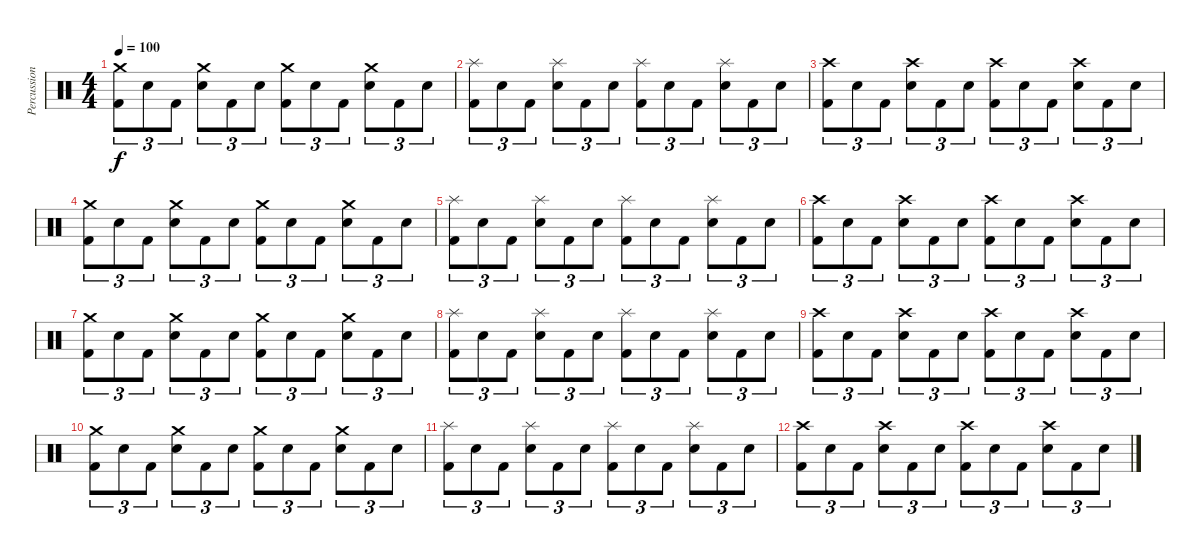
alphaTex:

\track ("Percussion" "Percussion") {instrument percussion}
\staff {score}
\articulation defaults
\ts (4 4)
\tempo 100
\clef neutral
\ks c
("Crash medium (hit)" "Kick (hit) 2").8{tu (3 2) dy f} "Snare (hit) 2".8{tu (3 2)} "Kick (hit) 2".8{tu (3 2)} ("Crash medium (hit)" "Snare (hit) 2").8{tu (3 2)} "Kick (hit) 2".8{tu (3 2)} "Snare (hit) 2".8{tu (3 2)} ("Crash medium (hit)" "Kick (hit) 2").8{tu (3 2)} "Snare (hit) 2".8{tu (3 2)} "Kick (hit) 2".8{tu (3 2)} ("Crash medium (hit)" "Snare (hit) 2").8{tu (3 2)} "Kick (hit) 2".8{tu (3 2)} "Snare (hit) 2".8{tu (3 2)} |
("Splash (hit)" "Kick (hit) 2").8{tu (3 2)} "Snare (hit) 2".8{tu (3 2)} "Kick (hit) 2".8{tu (3 2)} ("Splash (hit)" "Snare (hit) 2").8{tu (3 2)} "Kick (hit) 2".8{tu (3 2)} "Snare (hit) 2".8{tu (3 2)} ("Splash (hit)" "Kick (hit) 2").8{tu (3 2)} "Snare (hit) 2".8{tu (3 2)} "Kick (hit) 2".8{tu (3 2)} ("Splash (hit)" "Snare (hit) 2").8{tu (3 2)} "Kick (hit) 2".8{tu (3 2)} "Snare (hit) 2".8{tu (3 2)} |
("Crash high (hit)" "Kick (hit) 2").8{tu (3 2)} "Snare (hit) 2".8{tu (3 2)} "Kick (hit) 2".8{tu (3 2)} ("Crash high (hit)" "Snare (hit) 2").8{tu (3 2)} "Kick (hit) 2".8{tu (3 2)} "Snare (hit) 2".8{tu (3 2)} ("Crash high (hit)" "Kick (hit) 2").8{tu (3 2)} "Snare (hit) 2".8{tu (3 2)} "Kick (hit) 2".8{tu (3 2)} ("Crash high (hit)" "Snare (hit) 2").8{tu (3 2)} "Kick (hit) 2".8{tu (3 2)} "Snare (hit) 2".8{tu (3 2)} |
("Crash medium (hit)" "Kick (hit) 2").8{tu (3 2)} "Snare (hit) 2".8{tu (3 2)} "Kick (hit) 2".8{tu (3 2)} ("Crash medium (hit)" "Snare (hit) 2").8{tu (3 2)} "Kick (hit) 2".8{tu (3 2)} "Snare (hit) 2".8{tu (3 2)} ("Crash medium (hit)" "Kick (hit) 2").8{tu (3 2)} "Snare (hit) 2".8{tu (3 2)} "Kick (hit) 2".8{tu (3 2)} ("Crash medium (hit)" "Snare (hit) 2").8{tu (3 2)} "Kick (hit) 2".8{tu (3 2)} "Snare (hit) 2".8{tu (3 2)} |
("Splash (hit)" "Kick (hit) 2").8{tu (3 2)} "Snare (hit) 2".8{tu (3 2)} "Kick (hit) 2".8{tu (3 2)} ("Splash (hit)" "Snare (hit) 2").8{tu (3 2)} "Kick (hit) 2".8{tu (3 2)} "Snare (hit) 2".8{tu (3 2)} ("Splash (hit)" "Kick (hit) 2").8{tu (3 2)} "Snare (hit) 2".8{tu (3 2)} "Kick (hit) 2".8{tu (3 2)} ("Splash (hit)" "Snare (hit) 2").8{tu (3 2)} "Kick (hit) 2".8{tu (3 2)} "Snare (hit) 2".8{tu (3 2)} |
("Crash high (hit)" "Kick (hit) 2").8{tu (3 2)} "Snare (hit) 2".8{tu (3 2)} "Kick (hit) 2".8{tu (3 2)} ("Crash high (hit)" "Snare (hit) 2").8{tu (3 2)} "Kick (hit) 2".8{tu (3 2)} "Snare (hit) 2".8{tu (3 2)} ("Crash high (hit)" "Kick (hit) 2").8{tu (3 2)} "Snare (hit) 2".8{tu (3 2)} "Kick (hit) 2".8{tu (3 2)} ("Crash high (hit)" "Snare (hit) 2").8{tu (3 2)} "Kick (hit) 2".8{tu (3 2)} "Snare (hit) 2".8{tu (3 2)} |
("Crash medium (hit)" "Kick (hit) 2").8{tu (3 2)} "Snare (hit) 2".8{tu (3 2)} "Kick (hit) 2".8{tu (3 2)} ("Crash medium (hit)" "Snare (hit) 2").8{tu (3 2)} "Kick (hit) 2".8{tu (3 2)} "Snare (hit) 2".8{tu (3 2)} ("Crash medium (hit)" "Kick (hit) 2").8{tu (3 2)} "Snare (hit) 2".8{tu (3 2)} "Kick (hit) 2".8{tu (3 2)} ("Crash medium (hit)" "Snare (hit) 2").8{tu (3 2)} "Kick (hit) 2".8{tu (3 2)} "Snare (hit) 2".8{tu (3 2)} |
("Splash (hit)" "Kick (hit) 2").8{tu (3 2)} "Snare (hit) 2".8{tu (3 2)} "Kick (hit) 2".8{tu (3 2)} ("Splash (hit)" "Snare (hit) 2").8{tu (3 2)} "Kick (hit) 2".8{tu (3 2)} "Snare (hit) 2".8{tu (3 2)} ("Splash (hit)" "Kick (hit) 2").8{tu (3 2)} "Snare (hit) 2".8{tu (3 2)} "Kick (hit) 2".8{tu (3 2)} ("Splash (hit)" "Snare (hit) 2").8{tu (3 2)} "Kick (hit) 2".8{tu (3 2)} "Snare (hit) 2".8{tu (3 2)} |
("Crash high (hit)" "Kick (hit) 2").8{tu (3 2)} "Snare (hit) 2".8{tu (3 2)} "Kick (hit) 2".8{tu (3 2)} ("Crash high (hit)" "Snare (hit) 2").8{tu (3 2)} "Kick (hit) 2".8{tu (3 2)} "Snare (hit) 2".8{tu (3 2)} ("Crash high (hit)" "Kick (hit) 2").8{tu (3 2)} "Snare (hit) 2".8{tu (3 2)} "Kick (hit) 2".8{tu (3 2)} ("Crash high (hit)" "Snare (hit) 2").8{tu (3 2)} "Kick (hit) 2".8{tu (3 2)} "Snare (hit) 2".8{tu (3 2)} |
("Crash medium (hit)" "Kick (hit) 2").8{tu (3 2)} "Snare (hit) 2".8{tu (3 2)} "Kick (hit) 2".8{tu (3 2)} ("Crash medium (hit)" "Snare (hit) 2").8{tu (3 2)} "Kick (hit) 2".8{tu (3 2)} "Snare (hit) 2".8{tu (3 2)} ("Crash medium (hit)" "Kick (hit) 2").8{tu (3 2)} "Snare (hit) 2".8{tu (3 2)} "Kick (hit) 2".8{tu (3 2)} ("Crash medium (hit)" "Snare (hit) 2").8{tu (3 2)} "Kick (hit) 2".8{tu (3 2)} "Snare (hit) 2".8{tu (3 2)} |
("Splash (hit)" "Kick (hit) 2").8{tu (3 2)} "Snare (hit) 2".8{tu (3 2)} "Kick (hit) 2".8{tu (3 2)} ("Splash (hit)" "Snare (hit) 2").8{tu (3 2)} "Kick (hit) 2".8{tu (3 2)} "Snare (hit) 2".8{tu (3 2)} ("Splash (hit)" "Kick (hit) 2").8{tu (3 2)} "Snare (hit) 2".8{tu (3 2)} "Kick (hit) 2".8{tu (3 2)} ("Splash (hit)" "Snare (hit) 2").8{tu (3 2)} "Kick (hit) 2".8{tu (3 2)} "Snare (hit) 2".8{tu (3 2)} |
("Crash high (hit)" "Kick (hit) 2").8{tu (3 2)} "Snare (hit) 2".8{tu (3 2)} "Kick (hit) 2".8{tu (3 2)} ("Crash high (hit)" "Snare (hit) 2").8{tu (3 2)} "Kick (hit) 2".8{tu (3 2)} "Snare (hit) 2".8{tu (3 2)} ("Crash high (hit)" "Kick (hit) 2").8{tu (3 2)} "Snare (hit) 2".8{tu (3 2)} "Kick (hit) 2".8{tu (3 2)} ("Crash high (hit)" "Snare (hit) 2").8{tu (3 2)} "Kick (hit) 2".8{tu (3 2)} "Snare (hit) 2".8{tu (3 2)}
